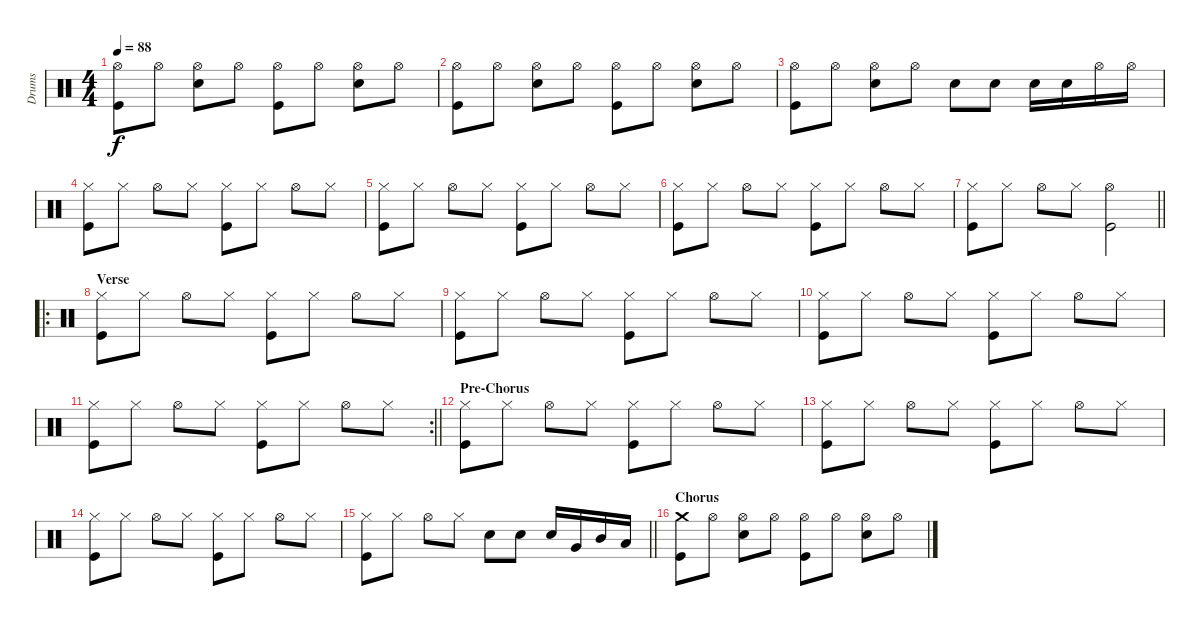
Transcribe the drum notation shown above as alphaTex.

\track ("Drums" "Drums") {instrument percussion}
\staff {score}
\articulation defaults
\ts (4 4)
\tempo 88
\clef neutral
\ks c
("Kick (hit)" "Hi-Hat (open)").8{dy f} "Hi-Hat (open)".8 ("Hi-Hat (open)" "Snare (hit) 2").8 "Hi-Hat (open)".8 ("Kick (hit)" "Hi-Hat (open)").8 "Hi-Hat (open)".8 ("Hi-Hat (open)" "Snare (hit) 2").8 "Hi-Hat (open)".8 |
("Kick (hit)" "Hi-Hat (open)").8 "Hi-Hat (open)".8 ("Hi-Hat (open)" "Snare (hit) 2").8 "Hi-Hat (open)".8 ("Kick (hit)" "Hi-Hat (open)").8 "Hi-Hat (open)".8 ("Hi-Hat (open)" "Snare (hit) 2").8 "Hi-Hat (open)".8 |
("Kick (hit)" "Hi-Hat (open)").8 "Hi-Hat (open)".8 ("Hi-Hat (open)" "Snare (hit) 2").8 "Hi-Hat (open)".8 "Snare (hit) 2".8 "Snare (hit) 2".8 "Snare (hit) 2".16 "Snare (hit) 2".16 "Hi-Hat (open)".16 "Hi-Hat (open)".16 |
("Hi-Hat (closed)" "Kick (hit)").8 "Hi-Hat (closed)".8 "Hi-Hat (open)".8 "Hi-Hat (closed)".8 ("Hi-Hat (closed)" "Kick (hit)").8 "Hi-Hat (closed)".8 "Hi-Hat (open)".8 "Hi-Hat (closed)".8 |
("Hi-Hat (closed)" "Kick (hit)").8 "Hi-Hat (closed)".8 "Hi-Hat (open)".8 "Hi-Hat (closed)".8 ("Hi-Hat (closed)" "Kick (hit)").8 "Hi-Hat (closed)".8 "Hi-Hat (open)".8 "Hi-Hat (closed)".8 |
("Hi-Hat (closed)" "Kick (hit)").8 "Hi-Hat (closed)".8 "Hi-Hat (open)".8 "Hi-Hat (closed)".8 ("Hi-Hat (closed)" "Kick (hit)").8 "Hi-Hat (closed)".8 "Hi-Hat (open)".8 "Hi-Hat (closed)".8 |
\barLineRight lightlight
("Hi-Hat (closed)" "Kick (hit)").8 "Hi-Hat (closed)".8 "Hi-Hat (open)".8 "Hi-Hat (closed)".8 ("Hi-Hat (open)" "Kick (hit)").2 |
\ro
\section ("" "Verse")
("Hi-Hat (closed)" "Kick (hit)").8 "Hi-Hat (closed)".8 "Hi-Hat (open)".8 "Hi-Hat (closed)".8 ("Hi-Hat (closed)" "Kick (hit)").8 "Hi-Hat (closed)".8 "Hi-Hat (open)".8 "Hi-Hat (closed)".8 |
("Hi-Hat (closed)" "Kick (hit)").8 "Hi-Hat (closed)".8 "Hi-Hat (open)".8 "Hi-Hat (closed)".8 ("Hi-Hat (closed)" "Kick (hit)").8 "Hi-Hat (closed)".8 "Hi-Hat (open)".8 "Hi-Hat (closed)".8 |
("Hi-Hat (closed)" "Kick (hit)").8 "Hi-Hat (closed)".8 "Hi-Hat (open)".8 "Hi-Hat (closed)".8 ("Hi-Hat (closed)" "Kick (hit)").8 "Hi-Hat (closed)".8 "Hi-Hat (open)".8 "Hi-Hat (closed)".8 |
\rc 2
\barLineRight lightlight
("Hi-Hat (closed)" "Kick (hit)").8 "Hi-Hat (closed)".8 "Hi-Hat (open)".8 "Hi-Hat (closed)".8 ("Hi-Hat (closed)" "Kick (hit)").8 "Hi-Hat (closed)".8 "Hi-Hat (open)".8 "Hi-Hat (closed)".8 |
\section ("" "Pre-Chorus")
("Hi-Hat (closed)" "Kick (hit)").8 "Hi-Hat (closed)".8 "Hi-Hat (open)".8 "Hi-Hat (closed)".8 ("Hi-Hat (closed)" "Kick (hit)").8 "Hi-Hat (closed)".8 "Hi-Hat (open)".8 "Hi-Hat (closed)".8 |
("Hi-Hat (closed)" "Kick (hit)").8 "Hi-Hat (closed)".8 "Hi-Hat (open)".8 "Hi-Hat (closed)".8 ("Hi-Hat (closed)" "Kick (hit)").8 "Hi-Hat (closed)".8 "Hi-Hat (open)".8 "Hi-Hat (closed)".8 |
("Hi-Hat (closed)" "Kick (hit)").8 "Hi-Hat (closed)".8 "Hi-Hat (open)".8 "Hi-Hat (closed)".8 ("Hi-Hat (closed)" "Kick (hit)").8 "Hi-Hat (closed)".8 "Hi-Hat (open)".8 "Hi-Hat (closed)".8 |
\barLineRight lightlight
("Hi-Hat (closed)" "Kick (hit)").8 "Hi-Hat (closed)".8 "Hi-Hat (open)".8 "Hi-Hat (closed)".8 "Snare (hit) 2".8 "Snare (hit) 2".8 "Snare (hit) 2".16 "Very Low Tom (hit)".16 "Mid Tom (hit)".16 "Low Tom (hit)".16 |
\section ("" "Chorus")
("Kick (hit)" "Crash medium (hit)").8 "Hi-Hat (open)".8 ("Hi-Hat (open)" "Snare (hit) 2").8 "Hi-Hat (open)".8 ("Kick (hit)" "Hi-Hat (open)").8 "Hi-Hat (open)".8 ("Hi-Hat (open)" "Snare (hit) 2").8 "Hi-Hat (open)".8
